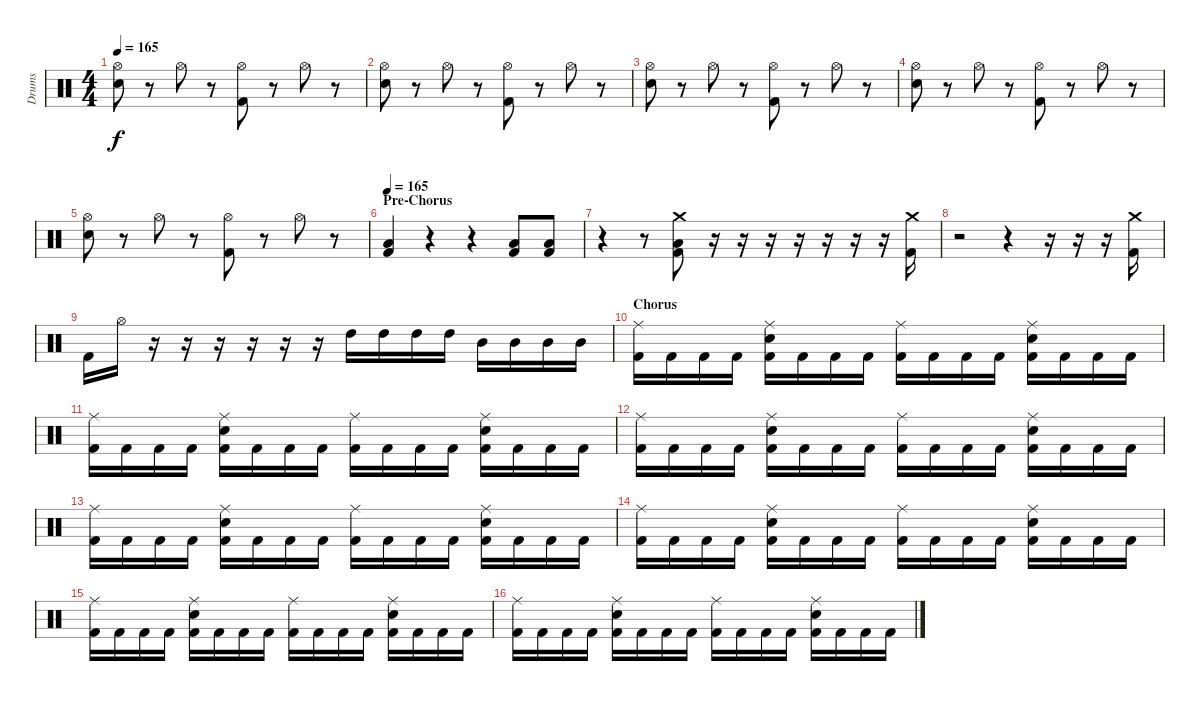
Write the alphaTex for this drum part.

\track ("Drums" "Drums") {instrument percussion}
\staff {score}
\articulation defaults
\ts (4 4)
\tempo 165
\clef neutral
\ks c
("Electric Snare (hit)" "Hi-Hat (open)").8{dy f} r.8 "Hi-Hat (open)".8 r.8 ("Kick (hit) 2" "Hi-Hat (open)").8 r.8 "Hi-Hat (open)".8 r.8 |
("Electric Snare (hit)" "Hi-Hat (open)").8 r.8 "Hi-Hat (open)".8 r.8 ("Kick (hit) 2" "Hi-Hat (open)").8 r.8 "Hi-Hat (open)".8 r.8 |
("Electric Snare (hit)" "Hi-Hat (open)").8 r.8 "Hi-Hat (open)".8 r.8 ("Kick (hit) 2" "Hi-Hat (open)").8 r.8 "Hi-Hat (open)".8 r.8 |
("Electric Snare (hit)" "Hi-Hat (open)").8 r.8 "Hi-Hat (open)".8 r.8 ("Kick (hit) 2" "Hi-Hat (open)").8 r.8 "Hi-Hat (open)".8 r.8 |
("Electric Snare (hit)" "Hi-Hat (open)").8 r.8 "Hi-Hat (open)".8 r.8 ("Kick (hit) 2" "Hi-Hat (open)").8 r.8 "Hi-Hat (open)".8 r.8 |
\section ("" "Pre-Chorus")
\tempo 165
("Kick (hit) 2" "Low Tom (hit)").4 r.4 r.4 ("Kick (hit) 2" "Low Tom (hit)").8 ("Kick (hit) 2" "Low Tom (hit)").8 |
r.4 r.8 ("Kick (hit) 2" "Low Tom (hit)" "Crash medium (hit)").8 r.16 r.16 r.16 r.16 r.16 r.16 r.16 ("Kick (hit) 2" "Crash medium (hit)").16 |
r.2 r.4 r.16 r.16 r.16 ("Kick (hit) 2" "Crash medium (hit)").16 |
"Kick (hit) 2".16 "Hi-Hat (open)".16 r.16 r.16 r.16 r.16 r.16 r.16 "High Tom (hit)".16 "High Tom (hit)".16 "High Tom (hit)".16 "High Tom (hit)".16 "Mid Tom (hit)".16 "Mid Tom (hit)".16 "Mid Tom (hit)".16 "Mid Tom (hit)".16 |
\section ("" "Chorus")
("Kick (hit) 2" "Ride (middle)").16 "Kick (hit) 2".16 "Kick (hit) 2".16 "Kick (hit) 2".16 ("Kick (hit) 2" "Electric Snare (hit)" "Ride (middle)").16 "Kick (hit) 2".16 "Kick (hit) 2".16 "Kick (hit) 2".16 ("Kick (hit) 2" "Ride (middle)").16 "Kick (hit) 2".16 "Kick (hit) 2".16 "Kick (hit) 2".16 ("Kick (hit) 2" "Electric Snare (hit)" "Ride (middle)").16 "Kick (hit) 2".16 "Kick (hit) 2".16 "Kick (hit) 2".16 |
("Kick (hit) 2" "Ride (middle)").16 "Kick (hit) 2".16 "Kick (hit) 2".16 "Kick (hit) 2".16 ("Kick (hit) 2" "Electric Snare (hit)" "Ride (middle)").16 "Kick (hit) 2".16 "Kick (hit) 2".16 "Kick (hit) 2".16 ("Kick (hit) 2" "Ride (middle)").16 "Kick (hit) 2".16 "Kick (hit) 2".16 "Kick (hit) 2".16 ("Kick (hit) 2" "Electric Snare (hit)" "Ride (middle)").16 "Kick (hit) 2".16 "Kick (hit) 2".16 "Kick (hit) 2".16 |
("Kick (hit) 2" "Ride (middle)").16 "Kick (hit) 2".16 "Kick (hit) 2".16 "Kick (hit) 2".16 ("Kick (hit) 2" "Electric Snare (hit)" "Ride (middle)").16 "Kick (hit) 2".16 "Kick (hit) 2".16 "Kick (hit) 2".16 ("Kick (hit) 2" "Ride (middle)").16 "Kick (hit) 2".16 "Kick (hit) 2".16 "Kick (hit) 2".16 ("Kick (hit) 2" "Electric Snare (hit)" "Ride (middle)").16 "Kick (hit) 2".16 "Kick (hit) 2".16 "Kick (hit) 2".16 |
("Kick (hit) 2" "Ride (middle)").16 "Kick (hit) 2".16 "Kick (hit) 2".16 "Kick (hit) 2".16 ("Kick (hit) 2" "Electric Snare (hit)" "Ride (middle)").16 "Kick (hit) 2".16 "Kick (hit) 2".16 "Kick (hit) 2".16 ("Kick (hit) 2" "Ride (middle)").16 "Kick (hit) 2".16 "Kick (hit) 2".16 "Kick (hit) 2".16 ("Kick (hit) 2" "Electric Snare (hit)" "Ride (middle)").16 "Kick (hit) 2".16 "Kick (hit) 2".16 "Kick (hit) 2".16 |
("Kick (hit) 2" "Ride (middle)").16 "Kick (hit) 2".16 "Kick (hit) 2".16 "Kick (hit) 2".16 ("Kick (hit) 2" "Electric Snare (hit)" "Ride (middle)").16 "Kick (hit) 2".16 "Kick (hit) 2".16 "Kick (hit) 2".16 ("Kick (hit) 2" "Ride (middle)").16 "Kick (hit) 2".16 "Kick (hit) 2".16 "Kick (hit) 2".16 ("Kick (hit) 2" "Electric Snare (hit)" "Ride (middle)").16 "Kick (hit) 2".16 "Kick (hit) 2".16 "Kick (hit) 2".16 |
("Kick (hit) 2" "Ride (middle)").16 "Kick (hit) 2".16 "Kick (hit) 2".16 "Kick (hit) 2".16 ("Kick (hit) 2" "Electric Snare (hit)" "Ride (middle)").16 "Kick (hit) 2".16 "Kick (hit) 2".16 "Kick (hit) 2".16 ("Kick (hit) 2" "Ride (middle)").16 "Kick (hit) 2".16 "Kick (hit) 2".16 "Kick (hit) 2".16 ("Kick (hit) 2" "Electric Snare (hit)" "Ride (middle)").16 "Kick (hit) 2".16 "Kick (hit) 2".16 "Kick (hit) 2".16 |
("Kick (hit) 2" "Ride (middle)").16 "Kick (hit) 2".16 "Kick (hit) 2".16 "Kick (hit) 2".16 ("Kick (hit) 2" "Electric Snare (hit)" "Ride (middle)").16 "Kick (hit) 2".16 "Kick (hit) 2".16 "Kick (hit) 2".16 ("Kick (hit) 2" "Ride (middle)").16 "Kick (hit) 2".16 "Kick (hit) 2".16 "Kick (hit) 2".16 ("Kick (hit) 2" "Electric Snare (hit)" "Ride (middle)").16 "Kick (hit) 2".16 "Kick (hit) 2".16 "Kick (hit) 2".16
